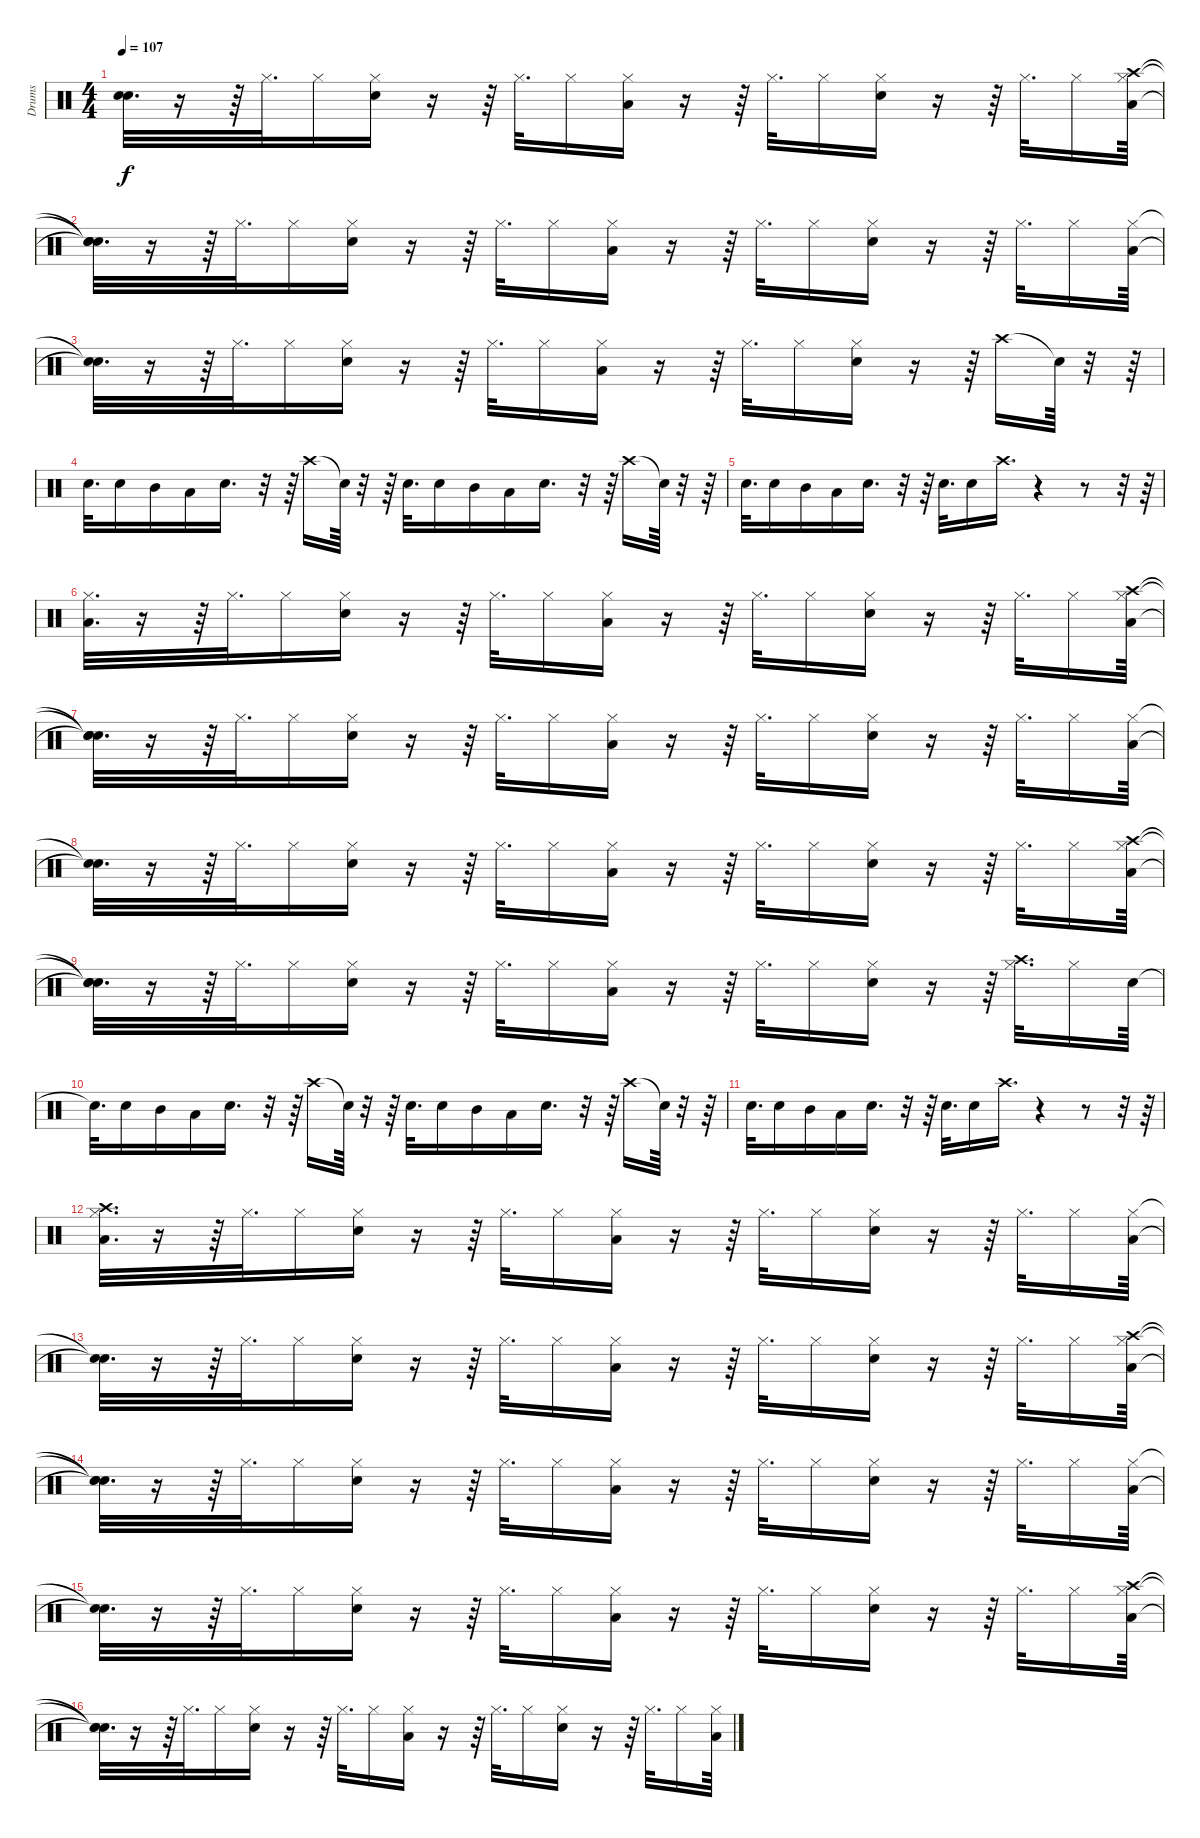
\track ("Drums" "Drums") {instrument percussion}
\staff {score}
\articulation defaults
\ts (4 4)
\tempo 107
\clef neutral
\ks c
("Snare (hit)"{t} "Snare (hit)"{t}).32{d dy f} r.16 r.64 "Hi-Hat (closed)".32{d} "Hi-Hat (closed)".16 ("Hi-Hat (closed)" "Snare (hit) 2").16 r.16 r.64 "Hi-Hat (closed)".32{d} "Hi-Hat (closed)".16 ("Hi-Hat (closed)" "Low Tom (hit)").16 r.16 r.64 "Hi-Hat (closed)".32{d} "Hi-Hat (closed)".16 ("Hi-Hat (closed)" "Snare (hit) 2").16 r.16 r.64 "Hi-Hat (closed)".32{d} "Hi-Hat (closed)".16 ("Hi-Hat (closed)" "Crash high (hit)" "Low Tom (hit)").64 |
("Snare (hit)"{t} "Snare (hit)"{t} "Snare (hit)"{t}).32{d} r.16 r.64 "Hi-Hat (closed)".32{d} "Hi-Hat (closed)".16 ("Hi-Hat (closed)" "Snare (hit) 2").16 r.16 r.64 "Hi-Hat (closed)".32{d} "Hi-Hat (closed)".16 ("Hi-Hat (closed)" "Low Tom (hit)").16 r.16 r.64 "Hi-Hat (closed)".32{d} "Hi-Hat (closed)".16 ("Hi-Hat (closed)" "Snare (hit) 2").16 r.16 r.64 "Hi-Hat (closed)".32{d} "Hi-Hat (closed)".16 ("Hi-Hat (closed)" "Low Tom (hit)").64 |
("Snare (hit)"{t} "Snare (hit)"{t}).32{d} r.16 r.64 "Hi-Hat (closed)".32{d} "Hi-Hat (closed)".16 ("Hi-Hat (closed)" "Snare (hit) 2").16 r.16 r.64 "Hi-Hat (closed)".32{d} "Hi-Hat (closed)".16 ("Hi-Hat (closed)" "Low Tom (hit)").16 r.16 r.64 "Hi-Hat (closed)".32{d} "Hi-Hat (closed)".16 ("Hi-Hat (closed)" "Snare (hit) 2").16 r.16 r.64 "Crash high (hit)".16 "Snare (hit)"{t}.64 r.32 r.64 |
"Snare (hit) 2".32{d} "Snare (hit) 2".16 "Mid Tom (hit)".16 "Low Tom (hit)".16 "Snare (hit) 2".16{d} r.32 r.64 "Crash high (hit)".16 "Snare (hit)"{t}.64 r.32 r.64 "Snare (hit) 2".32{d} "Snare (hit) 2".16 "Mid Tom (hit)".16 "Low Tom (hit)".16 "Snare (hit) 2".16{d} r.32 r.64 "Crash high (hit)".16 "Snare (hit)"{t}.64 r.32 r.64 |
"Snare (hit) 2".32{d} "Snare (hit) 2".16 "Mid Tom (hit)".16 "Low Tom (hit)".16 "Snare (hit) 2".16{d} r.32 r.64 "Snare (hit) 2".32{d} "Snare (hit) 2".16 "Crash high (hit)".16{d} r.4 r.8 r.32 r.64 |
("Hi-Hat (closed)" "Low Tom (hit)").32{d} r.16 r.64 "Hi-Hat (closed)".32{d} "Hi-Hat (closed)".16 ("Hi-Hat (closed)" "Snare (hit) 2").16 r.16 r.64 "Hi-Hat (closed)".32{d} "Hi-Hat (closed)".16 ("Hi-Hat (closed)" "Low Tom (hit)").16 r.16 r.64 "Hi-Hat (closed)".32{d} "Hi-Hat (closed)".16 ("Hi-Hat (closed)" "Snare (hit) 2").16 r.16 r.64 "Hi-Hat (closed)".32{d} "Hi-Hat (closed)".16 ("Hi-Hat (closed)" "Crash high (hit)" "Low Tom (hit)").64 |
("Snare (hit)"{t} "Snare (hit)"{t} "Snare (hit)"{t}).32{d} r.16 r.64 "Hi-Hat (closed)".32{d} "Hi-Hat (closed)".16 ("Hi-Hat (closed)" "Snare (hit) 2").16 r.16 r.64 "Hi-Hat (closed)".32{d} "Hi-Hat (closed)".16 ("Hi-Hat (closed)" "Low Tom (hit)").16 r.16 r.64 "Hi-Hat (closed)".32{d} "Hi-Hat (closed)".16 ("Hi-Hat (closed)" "Snare (hit) 2").16 r.16 r.64 "Hi-Hat (closed)".32{d} "Hi-Hat (closed)".16 ("Hi-Hat (closed)" "Low Tom (hit)").64 |
("Snare (hit)"{t} "Snare (hit)"{t}).32{d} r.16 r.64 "Hi-Hat (closed)".32{d} "Hi-Hat (closed)".16 ("Hi-Hat (closed)" "Snare (hit) 2").16 r.16 r.64 "Hi-Hat (closed)".32{d} "Hi-Hat (closed)".16 ("Hi-Hat (closed)" "Low Tom (hit)").16 r.16 r.64 "Hi-Hat (closed)".32{d} "Hi-Hat (closed)".16 ("Hi-Hat (closed)" "Snare (hit) 2").16 r.16 r.64 "Hi-Hat (closed)".32{d} "Hi-Hat (closed)".16 ("Hi-Hat (closed)" "Low Tom (hit)" "Crash high (hit)").64 |
("Snare (hit)"{t} "Snare (hit)"{t} "Snare (hit)"{t}).32{d} r.16 r.64 "Hi-Hat (closed)".32{d} "Hi-Hat (closed)".16 ("Hi-Hat (closed)" "Snare (hit) 2").16 r.16 r.64 "Hi-Hat (closed)".32{d} "Hi-Hat (closed)".16 ("Hi-Hat (closed)" "Low Tom (hit)").16 r.16 r.64 "Hi-Hat (closed)".32{d} "Hi-Hat (closed)".16 ("Hi-Hat (closed)" "Snare (hit) 2").16 r.16 r.64 ("Crash high (hit)" "Hi-Hat (closed)").32{d} "Hi-Hat (closed)".16 "Snare (hit) 2".64 |
"Snare (hit)"{t}.32{d} "Snare (hit) 2".16 "Mid Tom (hit)".16 "Low Tom (hit)".16 "Snare (hit) 2".16{d} r.32 r.64 "Crash high (hit)".16 "Snare (hit)"{t}.64 r.32 r.64 "Snare (hit) 2".32{d} "Snare (hit) 2".16 "Mid Tom (hit)".16 "Low Tom (hit)".16 "Snare (hit) 2".16{d} r.32 r.64 "Crash high (hit)".16 "Snare (hit)"{t}.64 r.32 r.64 |
"Snare (hit) 2".32{d} "Snare (hit) 2".16 "Mid Tom (hit)".16 "Low Tom (hit)".16 "Snare (hit) 2".16{d} r.32 r.64 "Snare (hit) 2".32{d} "Snare (hit) 2".16 "Crash high (hit)".16{d} r.4 r.8 r.32 r.64 |
("Hi-Hat (closed)" "Crash high (hit)" "Low Tom (hit)").32{d} r.16 r.64 "Hi-Hat (closed)".32{d} "Hi-Hat (closed)".16 ("Hi-Hat (closed)" "Snare (hit) 2").16 r.16 r.64 "Hi-Hat (closed)".32{d} "Hi-Hat (closed)".16 ("Hi-Hat (closed)" "Low Tom (hit)").16 r.16 r.64 "Hi-Hat (closed)".32{d} "Hi-Hat (closed)".16 ("Hi-Hat (closed)" "Snare (hit) 2").16 r.16 r.64 "Hi-Hat (closed)".32{d} "Hi-Hat (closed)".16 ("Hi-Hat (closed)" "Low Tom (hit)").64 |
("Snare (hit)"{t} "Snare (hit)"{t}).32{d} r.16 r.64 "Hi-Hat (closed)".32{d} "Hi-Hat (closed)".16 ("Hi-Hat (closed)" "Snare (hit) 2").16 r.16 r.64 "Hi-Hat (closed)".32{d} "Hi-Hat (closed)".16 ("Hi-Hat (closed)" "Low Tom (hit)").16 r.16 r.64 "Hi-Hat (closed)".32{d} "Hi-Hat (closed)".16 ("Hi-Hat (closed)" "Snare (hit) 2").16 r.16 r.64 "Hi-Hat (closed)".32{d} "Hi-Hat (closed)".16 ("Hi-Hat (closed)" "Crash high (hit)" "Low Tom (hit)").64 |
("Snare (hit)"{t} "Snare (hit)"{t} "Snare (hit)"{t}).32{d} r.16 r.64 "Hi-Hat (closed)".32{d} "Hi-Hat (closed)".16 ("Hi-Hat (closed)" "Snare (hit) 2").16 r.16 r.64 "Hi-Hat (closed)".32{d} "Hi-Hat (closed)".16 ("Hi-Hat (closed)" "Low Tom (hit)").16 r.16 r.64 "Hi-Hat (closed)".32{d} "Hi-Hat (closed)".16 ("Hi-Hat (closed)" "Snare (hit) 2").16 r.16 r.64 "Hi-Hat (closed)".32{d} "Hi-Hat (closed)".16 ("Hi-Hat (closed)" "Low Tom (hit)").64 |
("Snare (hit)"{t} "Snare (hit)"{t}).32{d} r.16 r.64 "Hi-Hat (closed)".32{d} "Hi-Hat (closed)".16 ("Hi-Hat (closed)" "Snare (hit) 2").16 r.16 r.64 "Hi-Hat (closed)".32{d} "Hi-Hat (closed)".16 ("Hi-Hat (closed)" "Low Tom (hit)").16 r.16 r.64 "Hi-Hat (closed)".32{d} "Hi-Hat (closed)".16 ("Hi-Hat (closed)" "Snare (hit) 2").16 r.16 r.64 "Hi-Hat (closed)".32{d} "Hi-Hat (closed)".16 ("Hi-Hat (closed)" "Crash high (hit)" "Low Tom (hit)").64 |
("Snare (hit)"{t} "Snare (hit)"{t} "Snare (hit)"{t}).32{d} r.16 r.64 "Hi-Hat (closed)".32{d} "Hi-Hat (closed)".16 ("Hi-Hat (closed)" "Snare (hit) 2").16 r.16 r.64 "Hi-Hat (closed)".32{d} "Hi-Hat (closed)".16 ("Hi-Hat (closed)" "Low Tom (hit)").16 r.16 r.64 "Hi-Hat (closed)".32{d} "Hi-Hat (closed)".16 ("Hi-Hat (closed)" "Snare (hit) 2").16 r.16 r.64 "Hi-Hat (closed)".32{d} "Hi-Hat (closed)".16 ("Hi-Hat (closed)" "Low Tom (hit)").64
